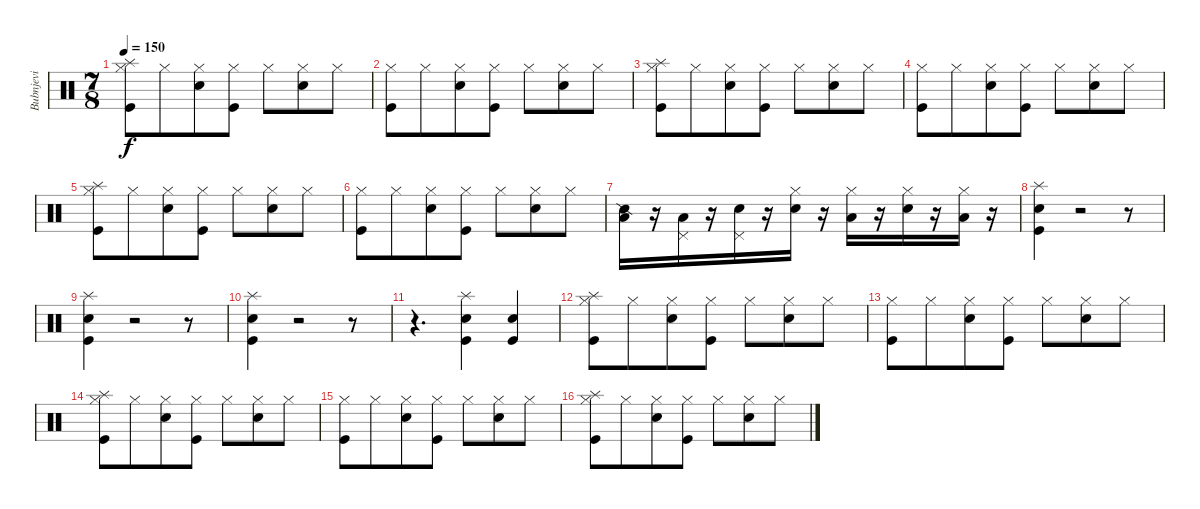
\track ("Bubnjevi" "Bubnjevi") {instrument percussion}
\staff {score}
\articulation defaults
\ts (7 8)
\tempo 150
\clef neutral
\ks c
("Splash (hit)" "Kick (hit)" "Hi-Hat (closed)").8{dy f} "Hi-Hat (closed)".8 ("Snare (hit) 2" "Hi-Hat (closed)").8 ("Kick (hit)" "Hi-Hat (closed)").8 "Hi-Hat (closed)".8 ("Snare (hit) 2" "Hi-Hat (closed)").8 "Hi-Hat (closed)".8 |
("Kick (hit)" "Hi-Hat (closed)").8 "Hi-Hat (closed)".8 ("Snare (hit) 2" "Hi-Hat (closed)").8 ("Kick (hit)" "Hi-Hat (closed)").8 "Hi-Hat (closed)".8 ("Snare (hit) 2" "Hi-Hat (closed)").8 "Hi-Hat (closed)".8 |
("Splash (hit)" "Kick (hit)" "Hi-Hat (closed)").8 "Hi-Hat (closed)".8 ("Snare (hit) 2" "Hi-Hat (closed)").8 ("Kick (hit)" "Hi-Hat (closed)").8 "Hi-Hat (closed)".8 ("Snare (hit) 2" "Hi-Hat (closed)").8 "Hi-Hat (closed)".8 |
("Kick (hit)" "Hi-Hat (closed)").8 "Hi-Hat (closed)".8 ("Snare (hit) 2" "Hi-Hat (closed)").8 ("Kick (hit)" "Hi-Hat (closed)").8 "Hi-Hat (closed)".8 ("Snare (hit) 2" "Hi-Hat (closed)").8 "Hi-Hat (closed)".8 |
("Splash (hit)" "Kick (hit)" "Hi-Hat (closed)").8 "Hi-Hat (closed)".8 ("Snare (hit) 2" "Hi-Hat (closed)").8 ("Kick (hit)" "Hi-Hat (closed)").8 "Hi-Hat (closed)".8 ("Snare (hit) 2" "Hi-Hat (closed)").8 "Hi-Hat (closed)".8 |
("Kick (hit)" "Hi-Hat (closed)").8 "Hi-Hat (closed)".8 ("Snare (hit) 2" "Hi-Hat (closed)").8 ("Kick (hit)" "Hi-Hat (closed)").8 "Hi-Hat (closed)".8 ("Snare (hit) 2" "Hi-Hat (closed)").8 "Hi-Hat (closed)".8 |
("Low Tom (hit)" "Snare (side stick) 2").16 r.16 ("Pedal Hi-Hat (hit)" "Low Tom (hit)").16 r.16 ("Pedal Hi-Hat (hit)" "Snare (hit) 2").16 r.16 ("Hi-Hat (closed)" "Snare (hit) 2").16 r.16 ("Hi-Hat (closed)" "Low Tom (hit)").16 r.16 ("Hi-Hat (closed)" "Snare (hit) 2").16 r.16 ("Hi-Hat (closed)" "Low Tom (hit)").16 r.16 |
("Splash (hit)" "Snare (hit) 2" "Kick (hit)").4 r.2 r.8 |
("Splash (hit)" "Snare (hit) 2" "Kick (hit)").4 r.2 r.8 |
("Splash (hit)" "Snare (hit) 2" "Kick (hit)").4 r.2 r.8 |
r.4{d} ("Splash (hit)" "Snare (hit) 2" "Kick (hit)").4 ("Snare (hit) 2" "Kick (hit)").4 |
("Splash (hit)" "Kick (hit)" "Hi-Hat (closed)").8 "Hi-Hat (closed)".8 ("Snare (hit) 2" "Hi-Hat (closed)").8 ("Kick (hit)" "Hi-Hat (closed)").8 "Hi-Hat (closed)".8 ("Snare (hit) 2" "Hi-Hat (closed)").8 "Hi-Hat (closed)".8 |
("Kick (hit)" "Hi-Hat (closed)").8 "Hi-Hat (closed)".8 ("Snare (hit) 2" "Hi-Hat (closed)").8 ("Kick (hit)" "Hi-Hat (closed)").8 "Hi-Hat (closed)".8 ("Snare (hit) 2" "Hi-Hat (closed)").8 "Hi-Hat (closed)".8 |
("Splash (hit)" "Kick (hit)" "Hi-Hat (closed)").8 "Hi-Hat (closed)".8 ("Snare (hit) 2" "Hi-Hat (closed)").8 ("Kick (hit)" "Hi-Hat (closed)").8 "Hi-Hat (closed)".8 ("Snare (hit) 2" "Hi-Hat (closed)").8 "Hi-Hat (closed)".8 |
("Kick (hit)" "Hi-Hat (closed)").8 "Hi-Hat (closed)".8 ("Snare (hit) 2" "Hi-Hat (closed)").8 ("Kick (hit)" "Hi-Hat (closed)").8 "Hi-Hat (closed)".8 ("Snare (hit) 2" "Hi-Hat (closed)").8 "Hi-Hat (closed)".8 |
("Splash (hit)" "Kick (hit)" "Hi-Hat (closed)").8 "Hi-Hat (closed)".8 ("Snare (hit) 2" "Hi-Hat (closed)").8 ("Kick (hit)" "Hi-Hat (closed)").8 "Hi-Hat (closed)".8 ("Snare (hit) 2" "Hi-Hat (closed)").8 "Hi-Hat (closed)".8
